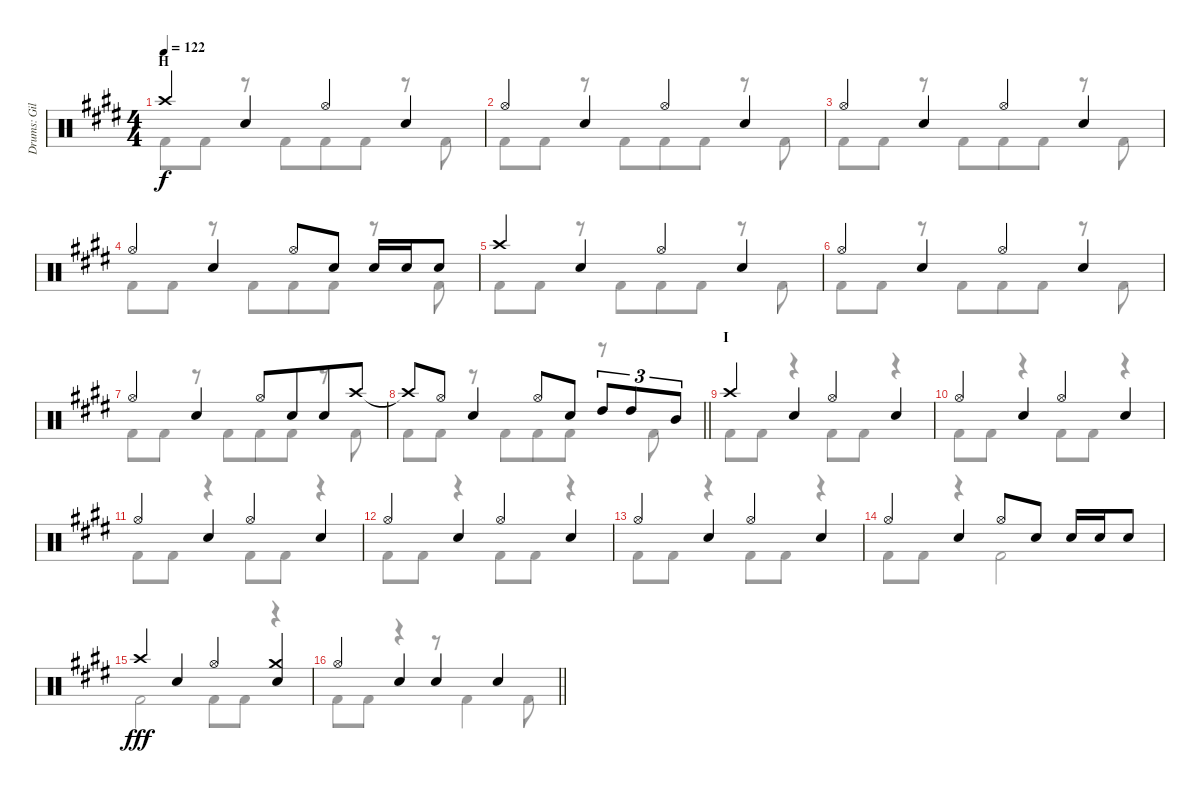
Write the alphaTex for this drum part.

\track ("Drums: Gil" "Drums: Gil") {instrument percussion}
\staff {score}
\articulation defaults
\voice
\ts (4 4)
\section ("" "H")
\tempo 122
\clef neutral
\ks e "Crash high (hit)".4{dy f} "Snare (hit) 2".4 "Hi-Hat (open)".4 "Snare (hit) 2".4
|
"Hi-Hat (open)".4 "Snare (hit) 2".4 "Hi-Hat (open)".4 "Snare (hit) 2".4 |
"Hi-Hat (open)".4 "Snare (hit) 2".4 "Hi-Hat (open)".4 "Snare (hit) 2".4 |
"Hi-Hat (open)".4 "Snare (hit) 2".4 "Hi-Hat (open)".8 "Snare (hit) 2".8 "Snare (hit) 2".16 "Snare (hit) 2".16 "Snare (hit) 2".8 |
"Crash high (hit)".4 "Snare (hit) 2".4 "Hi-Hat (open)".4 "Snare (hit) 2".4 |
"Hi-Hat (open)".4 "Snare (hit) 2".4 "Hi-Hat (open)".4 "Snare (hit) 2".4 |
"Hi-Hat (open)".4 "Snare (hit) 2".4 "Hi-Hat (open)".8 "Snare (hit) 2".8{beam merge} "Snare (hit) 2".8 "Crash high (hit)".8 |
\barLineRight lightlight "Crash high (hit)"{t}.8 "Hi-Hat (open)".8 "Snare (hit) 2".4 "Hi-Hat (open)".8 "Snare (hit) 2".8 "High Tom (hit)".8{tu (3 2)} "High Tom (hit)".8{tu (3 2)} "Mid Tom (hit)".8{tu (3 2)}
|
\section ("" "I")
"Crash high (hit)".4 "Snare (hit) 2".4 "Hi-Hat (open)".4 "Snare (hit) 2".4 |
"Hi-Hat (open)".4 "Snare (hit) 2".4 "Hi-Hat (open)".4 "Snare (hit) 2".4 |
"Hi-Hat (open)".4 "Snare (hit) 2".4 "Hi-Hat (open)".4 "Snare (hit) 2".4 |
"Hi-Hat (open)".4 "Snare (hit) 2".4 "Hi-Hat (open)".4 "Snare (hit) 2".4 |
"Hi-Hat (open)".4 "Snare (hit) 2".4 "Hi-Hat (open)".4 "Snare (hit) 2".4 |
"Hi-Hat (open)".4 "Snare (hit) 2".4 "Hi-Hat (open)".8 "Snare (hit) 2".8 "Snare (hit) 2".16 "Snare (hit) 2".16 "Snare (hit) 2".8 |
"Crash high (hit)".4{dy fff} "Snare (hit) 2".4 "Hi-Hat (open)".4 ("Crash medium (hit)" "Snare (hit) 2").4 |
\barLineRight lightlight "Hi-Hat (open)".4 "Snare (hit) 2".4 "Snare (hit) 2".4 "Snare (hit) 2".4
\voice
\clef neutral
\ottava regular
\simile none
\ks e "Kick (hit) 2".8{dy f} "Kick (hit) 2".8
r.8 "Kick (hit) 2".8{beam merge} "Kick (hit) 2".8 "Kick (hit) 2".8 r.8 "Kick (hit) 2".8 |
"Kick (hit) 2".8 "Kick (hit) 2".8 r.8 "Kick (hit) 2".8{beam merge} "Kick (hit) 2".8 "Kick (hit) 2".8 r.8 "Kick (hit) 2".8 |
"Kick (hit) 2".8 "Kick (hit) 2".8 r.8 "Kick (hit) 2".8{beam merge} "Kick (hit) 2".8 "Kick (hit) 2".8 r.8 "Kick (hit) 2".8 |
"Kick (hit) 2".8 "Kick (hit) 2".8 r.8 "Kick (hit) 2".8{beam merge} "Kick (hit) 2".8 "Kick (hit) 2".8 r.8 "Kick (hit) 2".8 |
"Kick (hit) 2".8 "Kick (hit) 2".8 r.8 "Kick (hit) 2".8{beam merge} "Kick (hit) 2".8 "Kick (hit) 2".8 r.8 "Kick (hit) 2".8 |
"Kick (hit) 2".8 "Kick (hit) 2".8 r.8 "Kick (hit) 2".8{beam merge} "Kick (hit) 2".8 "Kick (hit) 2".8 r.8 "Kick (hit) 2".8 |
"Kick (hit) 2".8 "Kick (hit) 2".8 r.8 "Kick (hit) 2".8{beam merge} "Kick (hit) 2".8 "Kick (hit) 2".8 r.8 "Kick (hit) 2".8 |
\barLineRight lightlight "Kick (hit) 2".8 "Kick (hit) 2".8
r.8 "Kick (hit) 2".8{beam merge} "Kick (hit) 2".8 "Kick (hit) 2".8 r.8 "Kick (hit) 2".8 |
"Kick (hit) 2".8 "Kick (hit) 2".8 r.4{beam merge} "Kick (hit) 2".8 "Kick (hit) 2".8 r.4 |
"Kick (hit) 2".8 "Kick (hit) 2".8 r.4{beam merge} "Kick (hit) 2".8 "Kick (hit) 2".8 r.4 |
"Kick (hit) 2".8 "Kick (hit) 2".8 r.4{beam merge} "Kick (hit) 2".8 "Kick (hit) 2".8 r.4 |
"Kick (hit) 2".8 "Kick (hit) 2".8 r.4{beam merge} "Kick (hit) 2".8 "Kick (hit) 2".8 r.4 |
"Kick (hit) 2".8 "Kick (hit) 2".8 r.4{beam merge} "Kick (hit) 2".8 "Kick (hit) 2".8 r.4 |
"Kick (hit) 2".8 "Kick (hit) 2".8 r.4{beam merge} "Kick (hit) 2".2 |
"Kick (hit) 2".2{dy fff} "Kick (hit) 2".8 "Kick (hit) 2".8 r.4 |
\barLineRight lightlight "Kick (hit) 2".8 "Kick (hit) 2".8
r.4 r.8 "Kick (hit) 2".4 "Kick (hit) 2".8
